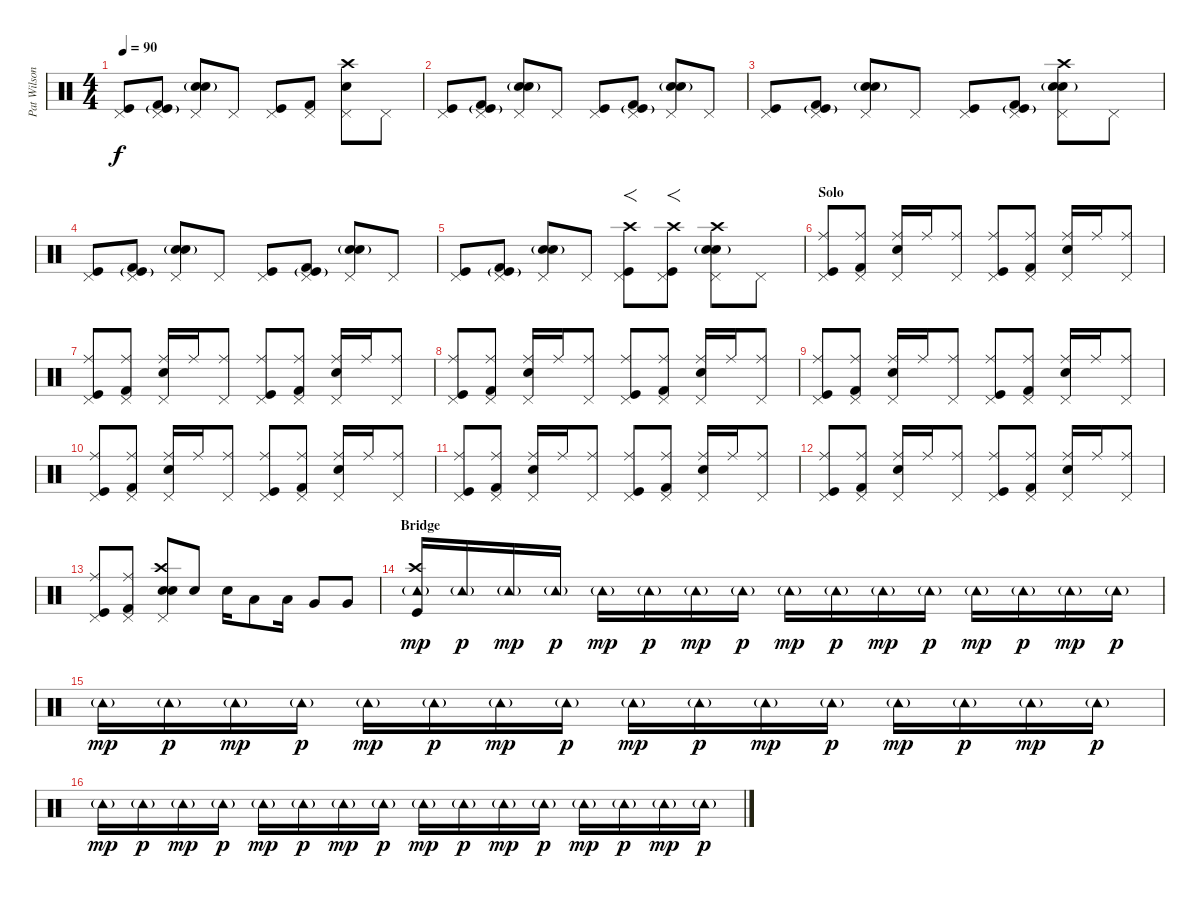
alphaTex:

\track ("Pat Wilson" "Pat Wilson") {instrument percussion}
\staff {score}
\articulation defaults
\ts (4 4)
\tempo 90
\clef neutral
\ks c
("Pedal Hi-Hat (hit)" "Kick (hit)").8{dy f} ("Pedal Hi-Hat (hit)" "Kick (hit)"{g} "Kick (hit) 2").8 ("Pedal Hi-Hat (hit)" "Hand Clap (hit)"{g} "Electric Snare (hit)").8 "Pedal Hi-Hat (hit)".8 ("Pedal Hi-Hat (hit)" "Kick (hit)").8 ("Pedal Hi-Hat (hit)" "Kick (hit) 2").8 ("Crash high (hit)" "Pedal Hi-Hat (hit)" "Electric Snare (hit)").8 "Pedal Hi-Hat (hit)".8 |
("Pedal Hi-Hat (hit)" "Kick (hit)").8 ("Pedal Hi-Hat (hit)" "Kick (hit)"{g} "Kick (hit) 2").8 ("Pedal Hi-Hat (hit)" "Hand Clap (hit)"{g} "Electric Snare (hit)").8 "Pedal Hi-Hat (hit)".8 ("Pedal Hi-Hat (hit)" "Kick (hit)").8 ("Pedal Hi-Hat (hit)" "Kick (hit)"{g} "Kick (hit) 2").8 ("Pedal Hi-Hat (hit)" "Hand Clap (hit)"{g} "Electric Snare (hit)").8 "Pedal Hi-Hat (hit)".8 |
("Pedal Hi-Hat (hit)" "Kick (hit)").8 ("Pedal Hi-Hat (hit)" "Kick (hit)"{g} "Kick (hit) 2").8 ("Pedal Hi-Hat (hit)" "Hand Clap (hit)"{g} "Electric Snare (hit)").8 "Pedal Hi-Hat (hit)".8 ("Pedal Hi-Hat (hit)" "Kick (hit)").8 ("Pedal Hi-Hat (hit)" "Kick (hit)"{g} "Kick (hit) 2").8 ("Crash high (hit)" "Pedal Hi-Hat (hit)" "Hand Clap (hit)"{g} "Electric Snare (hit)").8 "Pedal Hi-Hat (hit)".8 |
("Pedal Hi-Hat (hit)" "Kick (hit)").8 ("Pedal Hi-Hat (hit)" "Kick (hit)"{g} "Kick (hit) 2").8 ("Pedal Hi-Hat (hit)" "Hand Clap (hit)"{g} "Electric Snare (hit)").8 "Pedal Hi-Hat (hit)".8 ("Pedal Hi-Hat (hit)" "Kick (hit)").8 ("Pedal Hi-Hat (hit)" "Kick (hit)"{g} "Kick (hit) 2").8 ("Pedal Hi-Hat (hit)" "Hand Clap (hit)"{g} "Electric Snare (hit)").8 "Pedal Hi-Hat (hit)".8 |
("Pedal Hi-Hat (hit)" "Kick (hit)").8 ("Pedal Hi-Hat (hit)" "Kick (hit)"{g} "Kick (hit) 2").8 ("Pedal Hi-Hat (hit)" "Hand Clap (hit)"{g} "Electric Snare (hit)").8 "Pedal Hi-Hat (hit)".8 ("Crash high (hit)" "Pedal Hi-Hat (hit)" "Kick (hit)").8{f} ("Crash high (hit)" "Pedal Hi-Hat (hit)" "Kick (hit)").8{f} ("Crash high (hit)" "Pedal Hi-Hat (hit)" "Hand Clap (hit)"{g} "Electric Snare (hit)").8 "Pedal Hi-Hat (hit)".8 |
\section ("" "Solo")
("Ride (middle)" "Pedal Hi-Hat (hit)" "Kick (hit)").8 ("Ride (middle)" "Pedal Hi-Hat (hit)" "Kick (hit) 2").8 ("Ride (middle)" "Pedal Hi-Hat (hit)" "Electric Snare (hit)").16 "Ride (middle)".16 ("Ride (middle)" "Pedal Hi-Hat (hit)").8 ("Ride (middle)" "Pedal Hi-Hat (hit)" "Kick (hit)").8 ("Ride (middle)" "Pedal Hi-Hat (hit)" "Kick (hit) 2").8 ("Ride (middle)" "Pedal Hi-Hat (hit)" "Electric Snare (hit)").16 "Ride (middle)".16 ("Ride (middle)" "Pedal Hi-Hat (hit)").8 |
("Ride (middle)" "Pedal Hi-Hat (hit)" "Kick (hit)").8 ("Ride (middle)" "Pedal Hi-Hat (hit)" "Kick (hit) 2").8 ("Ride (middle)" "Pedal Hi-Hat (hit)" "Electric Snare (hit)").16 "Ride (middle)".16 ("Ride (middle)" "Pedal Hi-Hat (hit)").8 ("Ride (middle)" "Pedal Hi-Hat (hit)" "Kick (hit)").8 ("Ride (middle)" "Pedal Hi-Hat (hit)" "Kick (hit) 2").8 ("Ride (middle)" "Pedal Hi-Hat (hit)" "Electric Snare (hit)").16 "Ride (middle)".16 ("Ride (middle)" "Pedal Hi-Hat (hit)").8 |
("Ride (middle)" "Pedal Hi-Hat (hit)" "Kick (hit)").8 ("Ride (middle)" "Pedal Hi-Hat (hit)" "Kick (hit) 2").8 ("Ride (middle)" "Pedal Hi-Hat (hit)" "Electric Snare (hit)").16 "Ride (middle)".16 ("Ride (middle)" "Pedal Hi-Hat (hit)").8 ("Ride (middle)" "Pedal Hi-Hat (hit)" "Kick (hit)").8 ("Ride (middle)" "Pedal Hi-Hat (hit)" "Kick (hit) 2").8 ("Ride (middle)" "Pedal Hi-Hat (hit)" "Electric Snare (hit)").16 "Ride (middle)".16 ("Ride (middle)" "Pedal Hi-Hat (hit)").8 |
("Ride (middle)" "Pedal Hi-Hat (hit)" "Kick (hit)").8 ("Ride (middle)" "Pedal Hi-Hat (hit)" "Kick (hit) 2").8 ("Ride (middle)" "Pedal Hi-Hat (hit)" "Electric Snare (hit)").16 "Ride (middle)".16 ("Ride (middle)" "Pedal Hi-Hat (hit)").8 ("Ride (middle)" "Pedal Hi-Hat (hit)" "Kick (hit)").8 ("Ride (middle)" "Pedal Hi-Hat (hit)" "Kick (hit) 2").8 ("Ride (middle)" "Pedal Hi-Hat (hit)" "Electric Snare (hit)").16 "Ride (middle)".16 ("Ride (middle)" "Pedal Hi-Hat (hit)").8 |
("Ride (middle)" "Pedal Hi-Hat (hit)" "Kick (hit)").8 ("Ride (middle)" "Pedal Hi-Hat (hit)" "Kick (hit) 2").8 ("Ride (middle)" "Pedal Hi-Hat (hit)" "Electric Snare (hit)").16 "Ride (middle)".16 ("Ride (middle)" "Pedal Hi-Hat (hit)").8 ("Ride (middle)" "Pedal Hi-Hat (hit)" "Kick (hit)").8 ("Ride (middle)" "Pedal Hi-Hat (hit)" "Kick (hit) 2").8 ("Ride (middle)" "Pedal Hi-Hat (hit)" "Electric Snare (hit)").16 "Ride (middle)".16 ("Ride (middle)" "Pedal Hi-Hat (hit)").8 |
("Ride (middle)" "Pedal Hi-Hat (hit)" "Kick (hit)").8 ("Ride (middle)" "Pedal Hi-Hat (hit)" "Kick (hit) 2").8 ("Ride (middle)" "Pedal Hi-Hat (hit)" "Electric Snare (hit)").16 "Ride (middle)".16 ("Ride (middle)" "Pedal Hi-Hat (hit)").8 ("Ride (middle)" "Pedal Hi-Hat (hit)" "Kick (hit)").8 ("Ride (middle)" "Pedal Hi-Hat (hit)" "Kick (hit) 2").8 ("Ride (middle)" "Pedal Hi-Hat (hit)" "Electric Snare (hit)").16 "Ride (middle)".16 ("Ride (middle)" "Pedal Hi-Hat (hit)").8 |
("Ride (middle)" "Pedal Hi-Hat (hit)" "Kick (hit)").8 ("Ride (middle)" "Pedal Hi-Hat (hit)" "Kick (hit) 2").8 ("Ride (middle)" "Pedal Hi-Hat (hit)" "Electric Snare (hit)").16 "Ride (middle)".16 ("Ride (middle)" "Pedal Hi-Hat (hit)").8 ("Ride (middle)" "Pedal Hi-Hat (hit)" "Kick (hit)").8 ("Ride (middle)" "Pedal Hi-Hat (hit)" "Kick (hit) 2").8 ("Ride (middle)" "Pedal Hi-Hat (hit)" "Electric Snare (hit)").16 "Ride (middle)".16 ("Ride (middle)" "Pedal Hi-Hat (hit)").8 |
("Ride (middle)" "Pedal Hi-Hat (hit)" "Kick (hit)").8 ("Ride (middle)" "Pedal Hi-Hat (hit)" "Kick (hit) 2").8 ("Crash high (hit)" "Pedal Hi-Hat (hit)" "Snare (hit) 2" "Electric Snare (hit)").8 "Snare (hit) 2".8 "Snare (hit) 2".16 "Low Tom (hit)".8 "Low Tom (hit)".16 "Very Low Tom (hit)".8 "Very Low Tom (hit)".8 |
\section ("" "Bridge")
("Crash high (hit)" "Tambourine (hit)"{g} "Kick (hit)").16{dy mp} "Tambourine (hit)"{g}.16{dy p} "Tambourine (hit)"{g}.16{dy mp} "Tambourine (hit)"{g}.16{dy p} "Tambourine (hit)"{g}.16{dy mp} "Tambourine (hit)"{g}.16{dy p} "Tambourine (hit)"{g}.16{dy mp} "Tambourine (hit)"{g}.16{dy p} "Tambourine (hit)"{g}.16{dy mp} "Tambourine (hit)"{g}.16{dy p} "Tambourine (hit)"{g}.16{dy mp} "Tambourine (hit)"{g}.16{dy p} "Tambourine (hit)"{g}.16{dy mp} "Tambourine (hit)"{g}.16{dy p} "Tambourine (hit)"{g}.16{dy mp} "Tambourine (hit)"{g}.16{dy p} |
"Tambourine (hit)"{g}.16{dy mp} "Tambourine (hit)"{g}.16{dy p} "Tambourine (hit)"{g}.16{dy mp} "Tambourine (hit)"{g}.16{dy p} "Tambourine (hit)"{g}.16{dy mp} "Tambourine (hit)"{g}.16{dy p} "Tambourine (hit)"{g}.16{dy mp} "Tambourine (hit)"{g}.16{dy p} "Tambourine (hit)"{g}.16{dy mp} "Tambourine (hit)"{g}.16{dy p} "Tambourine (hit)"{g}.16{dy mp} "Tambourine (hit)"{g}.16{dy p} "Tambourine (hit)"{g}.16{dy mp} "Tambourine (hit)"{g}.16{dy p} "Tambourine (hit)"{g}.16{dy mp} "Tambourine (hit)"{g}.16{dy p} |
"Tambourine (hit)"{g}.16{dy mp} "Tambourine (hit)"{g}.16{dy p} "Tambourine (hit)"{g}.16{dy mp} "Tambourine (hit)"{g}.16{dy p} "Tambourine (hit)"{g}.16{dy mp} "Tambourine (hit)"{g}.16{dy p} "Tambourine (hit)"{g}.16{dy mp} "Tambourine (hit)"{g}.16{dy p} "Tambourine (hit)"{g}.16{dy mp} "Tambourine (hit)"{g}.16{dy p} "Tambourine (hit)"{g}.16{dy mp} "Tambourine (hit)"{g}.16{dy p} "Tambourine (hit)"{g}.16{dy mp} "Tambourine (hit)"{g}.16{dy p} "Tambourine (hit)"{g}.16{dy mp} "Tambourine (hit)"{g}.16{dy p}
